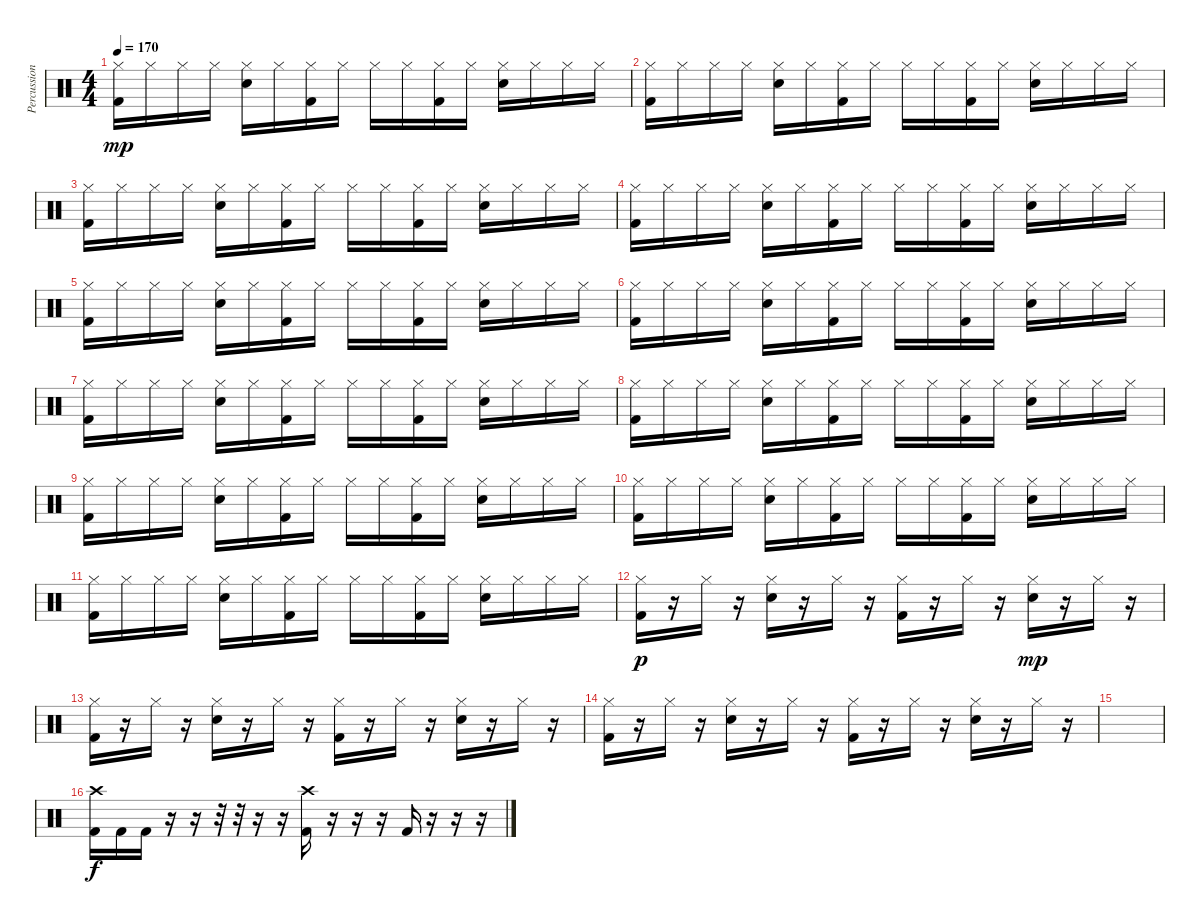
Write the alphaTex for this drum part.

\track ("Percussion" "Percussion") {instrument percussion}
\staff {score}
\articulation defaults
\ts (4 4)
\tempo 170
\clef neutral
\ks c
("Hi-Hat (closed)" "Kick (hit) 2").16{dy mp} "Hi-Hat (closed)".16 "Hi-Hat (closed)".16 "Hi-Hat (closed)".16 ("Hi-Hat (closed)" "Snare (hit) 2").16 "Hi-Hat (closed)".16 ("Hi-Hat (closed)" "Kick (hit) 2").16 "Hi-Hat (closed)".16 "Hi-Hat (closed)".16 "Hi-Hat (closed)".16 ("Hi-Hat (closed)" "Kick (hit) 2").16 "Hi-Hat (closed)".16 ("Hi-Hat (closed)" "Snare (hit) 2").16 "Hi-Hat (closed)".16 "Hi-Hat (closed)".16 "Hi-Hat (closed)".16 |
("Hi-Hat (closed)" "Kick (hit) 2").16 "Hi-Hat (closed)".16 "Hi-Hat (closed)".16 "Hi-Hat (closed)".16 ("Hi-Hat (closed)" "Snare (hit) 2").16 "Hi-Hat (closed)".16 ("Hi-Hat (closed)" "Kick (hit) 2").16 "Hi-Hat (closed)".16 "Hi-Hat (closed)".16 "Hi-Hat (closed)".16 ("Hi-Hat (closed)" "Kick (hit) 2").16 "Hi-Hat (closed)".16 ("Hi-Hat (closed)" "Snare (hit) 2").16 "Hi-Hat (closed)".16 "Hi-Hat (closed)".16 "Hi-Hat (closed)".16 |
("Hi-Hat (closed)" "Kick (hit) 2").16 "Hi-Hat (closed)".16 "Hi-Hat (closed)".16 "Hi-Hat (closed)".16 ("Hi-Hat (closed)" "Snare (hit) 2").16 "Hi-Hat (closed)".16 ("Hi-Hat (closed)" "Kick (hit) 2").16 "Hi-Hat (closed)".16 "Hi-Hat (closed)".16 "Hi-Hat (closed)".16 ("Hi-Hat (closed)" "Kick (hit) 2").16 "Hi-Hat (closed)".16 ("Hi-Hat (closed)" "Snare (hit) 2").16 "Hi-Hat (closed)".16 "Hi-Hat (closed)".16 "Hi-Hat (closed)".16 |
("Hi-Hat (closed)" "Kick (hit) 2").16 "Hi-Hat (closed)".16 "Hi-Hat (closed)".16 "Hi-Hat (closed)".16 ("Hi-Hat (closed)" "Snare (hit) 2").16 "Hi-Hat (closed)".16 ("Hi-Hat (closed)" "Kick (hit) 2").16 "Hi-Hat (closed)".16 "Hi-Hat (closed)".16 "Hi-Hat (closed)".16 ("Hi-Hat (closed)" "Kick (hit) 2").16 "Hi-Hat (closed)".16 ("Hi-Hat (closed)" "Snare (hit) 2").16 "Hi-Hat (closed)".16 "Hi-Hat (closed)".16 "Hi-Hat (closed)".16 |
("Hi-Hat (closed)" "Kick (hit) 2").16 "Hi-Hat (closed)".16 "Hi-Hat (closed)".16 "Hi-Hat (closed)".16 ("Hi-Hat (closed)" "Snare (hit) 2").16 "Hi-Hat (closed)".16 ("Hi-Hat (closed)" "Kick (hit) 2").16 "Hi-Hat (closed)".16 "Hi-Hat (closed)".16 "Hi-Hat (closed)".16 ("Hi-Hat (closed)" "Kick (hit) 2").16 "Hi-Hat (closed)".16 ("Hi-Hat (closed)" "Snare (hit) 2").16 "Hi-Hat (closed)".16 "Hi-Hat (closed)".16 "Hi-Hat (closed)".16 |
("Hi-Hat (closed)" "Kick (hit) 2").16 "Hi-Hat (closed)".16 "Hi-Hat (closed)".16 "Hi-Hat (closed)".16 ("Hi-Hat (closed)" "Snare (hit) 2").16 "Hi-Hat (closed)".16 ("Hi-Hat (closed)" "Kick (hit) 2").16 "Hi-Hat (closed)".16 "Hi-Hat (closed)".16 "Hi-Hat (closed)".16 ("Hi-Hat (closed)" "Kick (hit) 2").16 "Hi-Hat (closed)".16 ("Hi-Hat (closed)" "Snare (hit) 2").16 "Hi-Hat (closed)".16 "Hi-Hat (closed)".16 "Hi-Hat (closed)".16 |
("Hi-Hat (closed)" "Kick (hit) 2").16 "Hi-Hat (closed)".16 "Hi-Hat (closed)".16 "Hi-Hat (closed)".16 ("Hi-Hat (closed)" "Snare (hit) 2").16 "Hi-Hat (closed)".16 ("Hi-Hat (closed)" "Kick (hit) 2").16 "Hi-Hat (closed)".16 "Hi-Hat (closed)".16 "Hi-Hat (closed)".16 ("Hi-Hat (closed)" "Kick (hit) 2").16 "Hi-Hat (closed)".16 ("Hi-Hat (closed)" "Snare (hit) 2").16 "Hi-Hat (closed)".16 "Hi-Hat (closed)".16 "Hi-Hat (closed)".16 |
("Hi-Hat (closed)" "Kick (hit) 2").16 "Hi-Hat (closed)".16 "Hi-Hat (closed)".16 "Hi-Hat (closed)".16 ("Hi-Hat (closed)" "Snare (hit) 2").16 "Hi-Hat (closed)".16 ("Hi-Hat (closed)" "Kick (hit) 2").16 "Hi-Hat (closed)".16 "Hi-Hat (closed)".16 "Hi-Hat (closed)".16 ("Hi-Hat (closed)" "Kick (hit) 2").16 "Hi-Hat (closed)".16 ("Hi-Hat (closed)" "Snare (hit) 2").16 "Hi-Hat (closed)".16 "Hi-Hat (closed)".16 "Hi-Hat (closed)".16 |
("Hi-Hat (closed)" "Kick (hit) 2").16 "Hi-Hat (closed)".16 "Hi-Hat (closed)".16 "Hi-Hat (closed)".16 ("Hi-Hat (closed)" "Snare (hit) 2").16 "Hi-Hat (closed)".16 ("Hi-Hat (closed)" "Kick (hit) 2").16 "Hi-Hat (closed)".16 "Hi-Hat (closed)".16 "Hi-Hat (closed)".16 ("Hi-Hat (closed)" "Kick (hit) 2").16 "Hi-Hat (closed)".16 ("Hi-Hat (closed)" "Snare (hit) 2").16 "Hi-Hat (closed)".16 "Hi-Hat (closed)".16 "Hi-Hat (closed)".16 |
("Hi-Hat (closed)" "Kick (hit) 2").16 "Hi-Hat (closed)".16 "Hi-Hat (closed)".16 "Hi-Hat (closed)".16 ("Hi-Hat (closed)" "Snare (hit) 2").16 "Hi-Hat (closed)".16 ("Hi-Hat (closed)" "Kick (hit) 2").16 "Hi-Hat (closed)".16 "Hi-Hat (closed)".16 "Hi-Hat (closed)".16 ("Hi-Hat (closed)" "Kick (hit) 2").16 "Hi-Hat (closed)".16 ("Hi-Hat (closed)" "Snare (hit) 2").16 "Hi-Hat (closed)".16 "Hi-Hat (closed)".16 "Hi-Hat (closed)".16 |
("Hi-Hat (closed)" "Kick (hit) 2").16 "Hi-Hat (closed)".16 "Hi-Hat (closed)".16 "Hi-Hat (closed)".16 ("Hi-Hat (closed)" "Snare (hit) 2").16 "Hi-Hat (closed)".16 ("Hi-Hat (closed)" "Kick (hit) 2").16 "Hi-Hat (closed)".16 "Hi-Hat (closed)".16 "Hi-Hat (closed)".16 ("Hi-Hat (closed)" "Kick (hit) 2").16 "Hi-Hat (closed)".16 ("Hi-Hat (closed)" "Snare (hit) 2").16 "Hi-Hat (closed)".16 "Hi-Hat (closed)".16 "Hi-Hat (closed)".16 |
("Hi-Hat (closed)" "Kick (hit) 2").16{dy p} r.16 "Hi-Hat (closed)".16 r.16 ("Hi-Hat (closed)" "Snare (hit) 2").16 r.16 "Hi-Hat (closed)".16 r.16 ("Hi-Hat (closed)" "Kick (hit) 2").16 r.16 "Hi-Hat (closed)".16 r.16 ("Hi-Hat (closed)" "Snare (hit) 2").16{dy mp} r.16 "Hi-Hat (closed)".16 r.16 |
("Hi-Hat (closed)" "Kick (hit) 2").16 r.16 "Hi-Hat (closed)".16 r.16 ("Hi-Hat (closed)" "Snare (hit) 2").16 r.16 "Hi-Hat (closed)".16 r.16 ("Hi-Hat (closed)" "Kick (hit) 2").16 r.16 "Hi-Hat (closed)".16 r.16 ("Hi-Hat (closed)" "Snare (hit) 2").16 r.16 "Hi-Hat (closed)".16 r.16 |
("Hi-Hat (closed)" "Kick (hit) 2").16 r.16 "Hi-Hat (closed)".16 r.16 ("Hi-Hat (closed)" "Snare (hit) 2").16 r.16 "Hi-Hat (closed)".16 r.16 ("Hi-Hat (closed)" "Kick (hit) 2").16 r.16 "Hi-Hat (closed)".16 r.16 ("Hi-Hat (closed)" "Snare (hit) 2").16 r.16 "Hi-Hat (closed)".16 r.16 |
|
("Crash high (hit)" "Kick (hit) 2").16{dy f} "Kick (hit) 2".16 "Kick (hit) 2".16 r.16 r.16 r.32 r.32 r.16 r.16 ("Crash high (hit)" "Kick (hit) 2").16 r.16 r.16 r.16 "Kick (hit) 2".16 r.16 r.16 r.16
